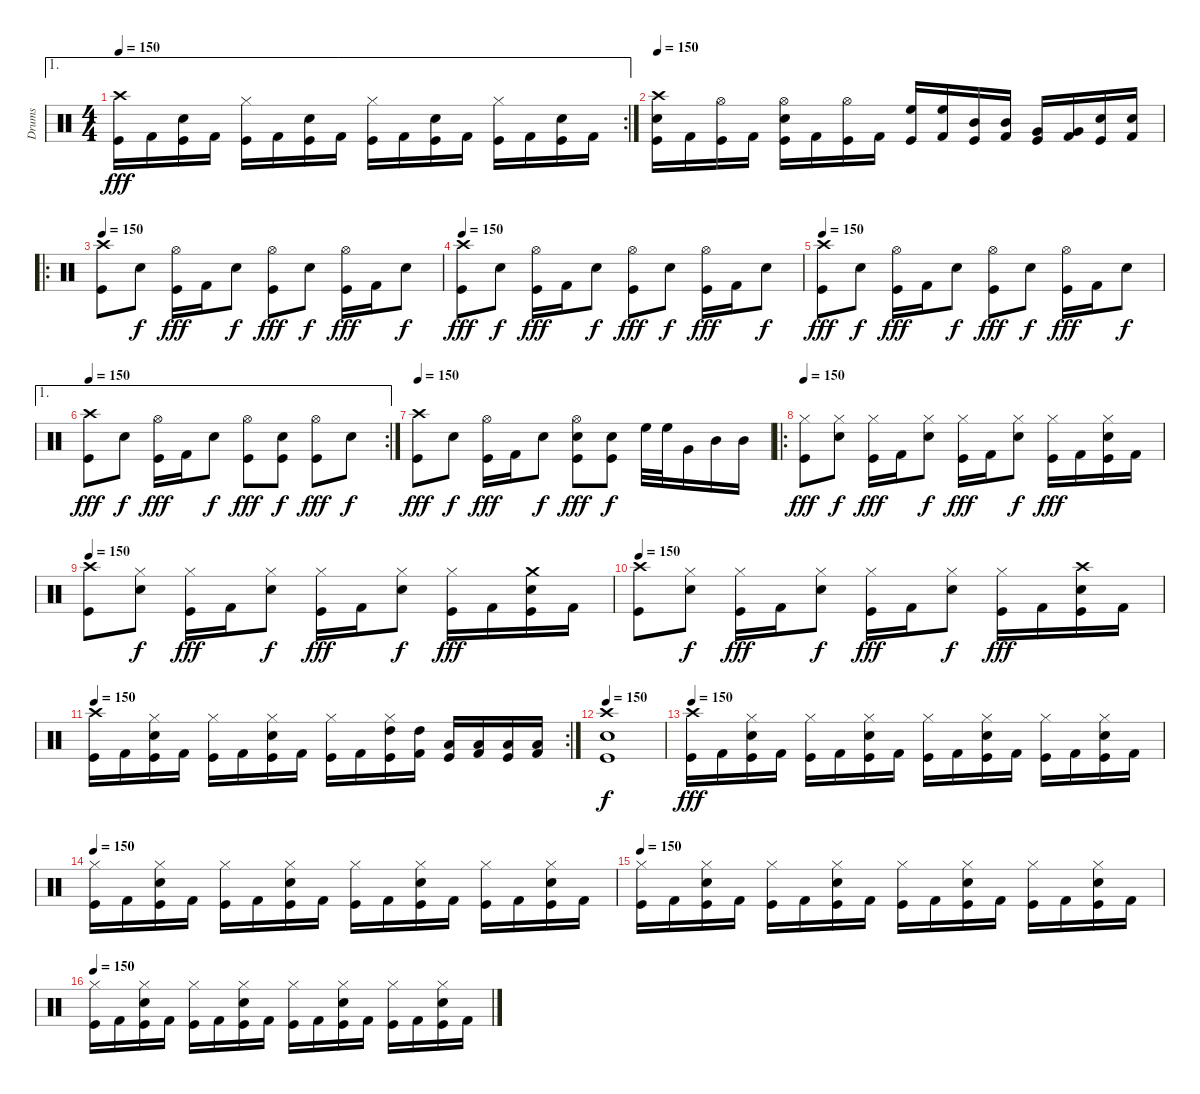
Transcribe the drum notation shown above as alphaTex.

\track ("Drums" "Drums") {instrument percussion}
\staff {score}
\articulation defaults
\ae 1
\rc 2
\ts (4 4)
\tempo 150
\clef neutral
\ks c
("Crash high (hit)" "Kick (hit)").16{dy fff} "Kick (hit) 2".16 ("Snare (hit) 2" "Kick (hit)").16 "Kick (hit) 2".16 ("Hi-Hat (closed)" "Kick (hit)").16 "Kick (hit) 2".16 ("Snare (hit) 2" "Kick (hit)").16 "Kick (hit) 2".16 ("Hi-Hat (closed)" "Kick (hit)").16 "Kick (hit) 2".16 ("Snare (hit) 2" "Kick (hit)").16 "Kick (hit) 2".16 ("Hi-Hat (closed)" "Kick (hit)").16 "Kick (hit) 2".16 ("Snare (hit) 2" "Kick (hit)").16 "Kick (hit) 2".16 |
\tempo 150
("Crash high (hit)" "Electric Snare (hit)" "Kick (hit)").16 "Kick (hit) 2".16 ("Hi-Hat (open)" "Kick (hit)").16 "Kick (hit) 2".16 ("Hi-Hat (open)" "Electric Snare (hit)" "Kick (hit)").16 "Kick (hit) 2".16 ("Hi-Hat (open)" "Kick (hit)").16 "Kick (hit) 2".16 ("High Floor Tom (hit)" "Kick (hit)").16 ("High Floor Tom (hit)" "Kick (hit) 2").16 ("Mid Tom (hit)" "Kick (hit)").16 ("Mid Tom (hit)" "Kick (hit) 2").16 ("Very Low Tom (hit)" "Kick (hit)").16 ("Very Low Tom (hit)" "Kick (hit) 2").16 ("Electric Snare (hit)" "Kick (hit)").16 ("Electric Snare (hit)" "Kick (hit) 2").16 |
\ro
\tempo 150
("Crash high (hit)" "Kick (hit)").8 "Snare (hit) 2".8{dy f} ("Hi-Hat (open)" "Kick (hit)").16{dy fff} "Kick (hit) 2".16 "Snare (hit) 2".8{dy f} ("Hi-Hat (open)" "Kick (hit)").8{dy fff} "Snare (hit) 2".8{dy f} ("Hi-Hat (open)" "Kick (hit)").16{dy fff} "Kick (hit) 2".16 "Snare (hit) 2".8{dy f} |
\tempo 150
("Crash high (hit)" "Kick (hit)").8{dy fff} "Snare (hit) 2".8{dy f} ("Hi-Hat (open)" "Kick (hit)").16{dy fff} "Kick (hit) 2".16 "Snare (hit) 2".8{dy f} ("Hi-Hat (open)" "Kick (hit)").8{dy fff} "Snare (hit) 2".8{dy f} ("Hi-Hat (open)" "Kick (hit)").16{dy fff} "Kick (hit) 2".16 "Snare (hit) 2".8{dy f} |
\tempo 150
("Crash high (hit)" "Kick (hit)").8{dy fff} "Snare (hit) 2".8{dy f} ("Hi-Hat (open)" "Kick (hit)").16{dy fff} "Kick (hit) 2".16 "Snare (hit) 2".8{dy f} ("Hi-Hat (open)" "Kick (hit)").8{dy fff} "Snare (hit) 2".8{dy f} ("Hi-Hat (open)" "Kick (hit)").16{dy fff} "Kick (hit) 2".16 "Snare (hit) 2".8{dy f} |
\ae 1
\rc 2
\tempo 150
("Crash high (hit)" "Kick (hit)").8{dy fff} "Snare (hit) 2".8{dy f} ("Hi-Hat (open)" "Kick (hit)").16{dy fff} "Kick (hit) 2".16 "Snare (hit) 2".8{dy f} ("Hi-Hat (open)" "Kick (hit)").8{dy fff} ("Snare (hit) 2" "Kick (hit)").8{dy f} ("Hi-Hat (open)" "Kick (hit)").8{dy fff} "Snare (hit) 2".8{dy f} |
\tempo 150
("Crash high (hit)" "Kick (hit)").8{dy fff} "Snare (hit) 2".8{dy f} ("Hi-Hat (open)" "Kick (hit)").16{dy fff} "Kick (hit) 2".16 "Snare (hit) 2".8{dy f} ("Hi-Hat (open)" "Snare (hit) 2" "Kick (hit)").8{dy fff} ("Snare (hit) 2" "Kick (hit)").8{dy f} "High Floor Tom (hit)".32 "High Floor Tom (hit)".32 "Very Low Tom (hit)".16 "Mid Tom (hit)".16 "Mid Tom (hit)".16 |
\ro
\tempo 150
("Hi-Hat (closed)" "Kick (hit)").8{dy fff} ("Hi-Hat (closed)" "Snare (hit) 2").8{dy f} ("Hi-Hat (closed)" "Kick (hit)").16{dy fff} "Kick (hit) 2".16 ("Hi-Hat (closed)" "Snare (hit) 2").8{dy f} ("Hi-Hat (closed)" "Kick (hit)").16{dy fff} "Kick (hit) 2".16 ("Hi-Hat (closed)" "Snare (hit) 2").8{dy f} ("Hi-Hat (closed)" "Kick (hit)").16{dy fff} "Kick (hit) 2".16 ("Hi-Hat (closed)" "Snare (hit) 2" "Kick (hit)").16 "Kick (hit) 2".16 |
\tempo 150
("Crash high (hit)" "Kick (hit)").8 ("Hi-Hat (closed)" "Snare (hit) 2").8{dy f} ("Hi-Hat (closed)" "Kick (hit)").16{dy fff} "Kick (hit) 2".16 ("Hi-Hat (closed)" "Snare (hit) 2").8{dy f} ("Hi-Hat (closed)" "Kick (hit)").16{dy fff} "Kick (hit) 2".16 ("Hi-Hat (closed)" "Snare (hit) 2").8{dy f} ("Hi-Hat (closed)" "Kick (hit)").16{dy fff} "Kick (hit) 2".16 ("Crash medium (hit)" "Snare (hit) 2" "Kick (hit)").16 "Kick (hit) 2".16 |
\tempo 150
("Crash high (hit)" "Kick (hit)").8 ("Hi-Hat (closed)" "Snare (hit) 2").8{dy f} ("Hi-Hat (closed)" "Kick (hit)").16{dy fff} "Kick (hit) 2".16 ("Hi-Hat (closed)" "Snare (hit) 2").8{dy f} ("Hi-Hat (closed)" "Kick (hit)").16{dy fff} "Kick (hit) 2".16 ("Hi-Hat (closed)" "Snare (hit) 2").8{dy f} ("Hi-Hat (closed)" "Kick (hit)").16{dy fff} "Kick (hit) 2".16 ("Crash high (hit)" "Snare (hit) 2" "Kick (hit)").16 "Kick (hit) 2".16 |
\rc 2
\tempo 150
("Crash high (hit)" "Kick (hit)").16 "Kick (hit) 2".16 ("Hi-Hat (closed)" "Snare (hit) 2" "Kick (hit)").16 "Kick (hit) 2".16 ("Hi-Hat (closed)" "Kick (hit)").16 "Kick (hit) 2".16 ("Hi-Hat (closed)" "Snare (hit) 2" "Kick (hit)").16 "Kick (hit) 2".16 ("Hi-Hat (closed)" "Kick (hit)").16 "Kick (hit) 2".16 ("Hi-Hat (closed)" "High Tom (hit)" "Kick (hit)").16 ("High Tom (hit)" "Kick (hit) 2").16 ("Low Floor Tom (hit)" "Kick (hit)").16 ("Low Floor Tom (hit)" "Kick (hit) 2").16 ("Low Tom (hit)" "Kick (hit)").16 ("Low Tom (hit)" "Kick (hit) 2").16 |
\tempo 150
("Crash high (hit)" "Electric Snare (hit)" "Kick (hit)").1{dy f} |
\tempo 150
("Crash high (hit)" "Kick (hit)").16{dy fff} "Kick (hit) 2".16 ("Hi-Hat (closed)" "Snare (hit) 2" "Kick (hit)").16 "Kick (hit) 2".16 ("Hi-Hat (closed)" "Kick (hit)").16 "Kick (hit) 2".16 ("Hi-Hat (closed)" "Snare (hit) 2" "Kick (hit)").16 "Kick (hit) 2".16 ("Hi-Hat (closed)" "Kick (hit)").16 "Kick (hit) 2".16 ("Hi-Hat (closed)" "Snare (hit) 2" "Kick (hit)").16 "Kick (hit) 2".16 ("Hi-Hat (closed)" "Kick (hit)").16 "Kick (hit) 2".16 ("Hi-Hat (closed)" "Snare (hit) 2" "Kick (hit)").16 "Kick (hit) 2".16 |
\tempo 150
("Hi-Hat (closed)" "Kick (hit)").16 "Kick (hit) 2".16 ("Hi-Hat (closed)" "Snare (hit) 2" "Kick (hit)").16 "Kick (hit) 2".16 ("Hi-Hat (closed)" "Kick (hit)").16 "Kick (hit) 2".16 ("Hi-Hat (closed)" "Snare (hit) 2" "Kick (hit)").16 "Kick (hit) 2".16 ("Hi-Hat (closed)" "Kick (hit)").16 "Kick (hit) 2".16 ("Hi-Hat (closed)" "Snare (hit) 2" "Kick (hit)").16 "Kick (hit) 2".16 ("Hi-Hat (closed)" "Kick (hit)").16 "Kick (hit) 2".16 ("Hi-Hat (closed)" "Snare (hit) 2" "Kick (hit)").16 "Kick (hit) 2".16 |
\tempo 150
("Hi-Hat (closed)" "Kick (hit)").16 "Kick (hit) 2".16 ("Hi-Hat (closed)" "Snare (hit) 2" "Kick (hit)").16 "Kick (hit) 2".16 ("Hi-Hat (closed)" "Kick (hit)").16 "Kick (hit) 2".16 ("Hi-Hat (closed)" "Snare (hit) 2" "Kick (hit)").16 "Kick (hit) 2".16 ("Hi-Hat (closed)" "Kick (hit)").16 "Kick (hit) 2".16 ("Hi-Hat (closed)" "Snare (hit) 2" "Kick (hit)").16 "Kick (hit) 2".16 ("Hi-Hat (closed)" "Kick (hit)").16 "Kick (hit) 2".16 ("Hi-Hat (closed)" "Snare (hit) 2" "Kick (hit)").16 "Kick (hit) 2".16 |
\tempo 150
("Hi-Hat (closed)" "Kick (hit)").16 "Kick (hit) 2".16 ("Hi-Hat (closed)" "Snare (hit) 2" "Kick (hit)").16 "Kick (hit) 2".16 ("Hi-Hat (closed)" "Kick (hit)").16 "Kick (hit) 2".16 ("Hi-Hat (closed)" "Snare (hit) 2" "Kick (hit)").16 "Kick (hit) 2".16 ("Hi-Hat (closed)" "Kick (hit)").16 "Kick (hit) 2".16 ("Hi-Hat (closed)" "Snare (hit) 2" "Kick (hit)").16 "Kick (hit) 2".16 ("Hi-Hat (closed)" "Kick (hit)").16 "Kick (hit) 2".16 ("Hi-Hat (closed)" "Snare (hit) 2" "Kick (hit)").16 "Kick (hit) 2".16
